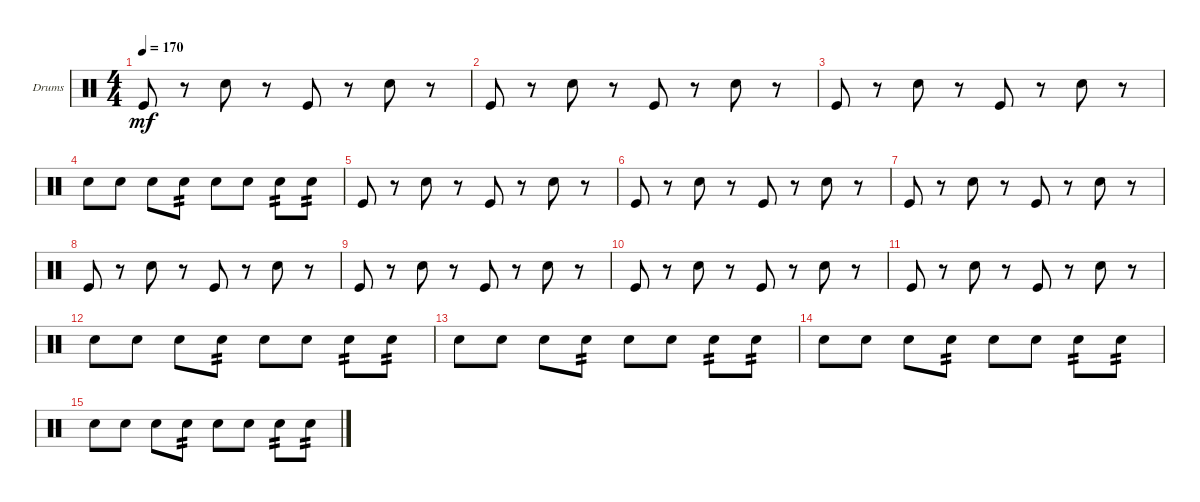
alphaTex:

\defaultSystemsLayout 4
\bracketExtendMode groupsimilarinstruments
\firstSystemTrackNameOrientation horizontal
\otherSystemsTrackNameOrientation horizontal
\track ("Drumkit" "Drums") {instrument percussion}
\staff {score}
\articulation defaults
\ts (4 4)
\tempo 170
\clef neutral
\ks c "Kick (hit)".8{dy mf}
r.8 "Snare (hit) 2".8 r.8 "Kick (hit)".8 r.8 "Snare (hit) 2".8 r.8 |
"Kick (hit)".8 r.8 "Snare (hit) 2".8 r.8 "Kick (hit)".8 r.8 "Snare (hit) 2".8 r.8 |
"Kick (hit)".8 r.8 "Snare (hit) 2".8 r.8 "Kick (hit)".8 r.8 "Snare (hit) 2".8 r.8 |
"Snare (hit) 2".8 "Snare (hit) 2".8 "Snare (hit) 2".8 "Snare (hit) 2".8{tp 2} "Snare (hit) 2".8 "Snare (hit) 2".8 "Snare (hit) 2".8{tp 2} "Snare (hit) 2".8{tp 2} |
"Kick (hit)".8 r.8 "Snare (hit) 2".8 r.8 "Kick (hit)".8 r.8 "Snare (hit) 2".8 r.8 |
"Kick (hit)".8 r.8 "Snare (hit) 2".8 r.8 "Kick (hit)".8 r.8 "Snare (hit) 2".8 r.8 |
"Kick (hit)".8 r.8 "Snare (hit) 2".8 r.8 "Kick (hit)".8 r.8 "Snare (hit) 2".8 r.8 |
"Kick (hit)".8 r.8 "Snare (hit) 2".8 r.8 "Kick (hit)".8 r.8 "Snare (hit) 2".8 r.8 |
"Kick (hit)".8 r.8 "Snare (hit) 2".8 r.8 "Kick (hit)".8 r.8 "Snare (hit) 2".8 r.8 |
"Kick (hit)".8 r.8 "Snare (hit) 2".8 r.8 "Kick (hit)".8 r.8 "Snare (hit) 2".8 r.8 |
"Kick (hit)".8 r.8 "Snare (hit) 2".8 r.8 "Kick (hit)".8 r.8 "Snare (hit) 2".8 r.8 |
"Snare (hit) 2".8 "Snare (hit) 2".8 "Snare (hit) 2".8 "Snare (hit) 2".8{tp 2} "Snare (hit) 2".8 "Snare (hit) 2".8 "Snare (hit) 2".8{tp 2} "Snare (hit) 2".8{tp 2} |
"Snare (hit) 2".8 "Snare (hit) 2".8 "Snare (hit) 2".8 "Snare (hit) 2".8{tp 2} "Snare (hit) 2".8 "Snare (hit) 2".8 "Snare (hit) 2".8{tp 2} "Snare (hit) 2".8{tp 2} |
"Snare (hit) 2".8 "Snare (hit) 2".8 "Snare (hit) 2".8 "Snare (hit) 2".8{tp 2} "Snare (hit) 2".8 "Snare (hit) 2".8 "Snare (hit) 2".8{tp 2} "Snare (hit) 2".8{tp 2} |
"Snare (hit) 2".8 "Snare (hit) 2".8 "Snare (hit) 2".8 "Snare (hit) 2".8{tp 2} "Snare (hit) 2".8 "Snare (hit) 2".8 "Snare (hit) 2".8{tp 2} "Snare (hit) 2".8{tp 2}
